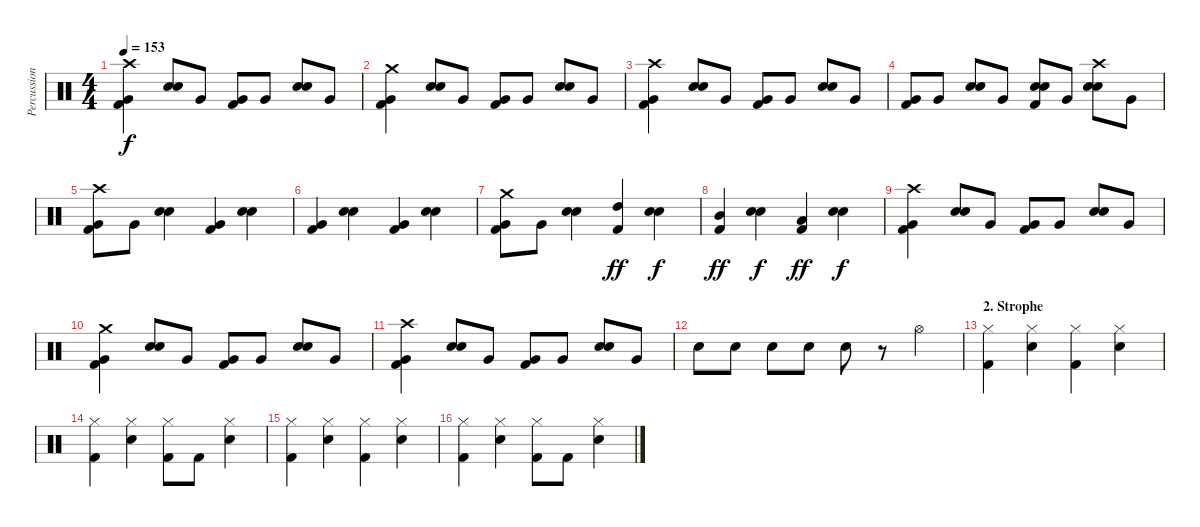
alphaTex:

\track ("Percussion" "Percussion") {instrument percussion}
\staff {score}
\articulation defaults
\ts (4 4)
\tempo 153
\clef neutral
\ks c
("Crash high (hit)" "Very Low Tom (hit)" "Kick (hit) 2").4{dy f} ("Electric Snare (hit)" "Snare (hit) 2").8 "Very Low Tom (hit)".8 ("Very Low Tom (hit)" "Kick (hit) 2").8 "Very Low Tom (hit)".8 ("Electric Snare (hit)" "Snare (hit) 2").8 "Very Low Tom (hit)".8 |
("Crash medium (hit)" "Very Low Tom (hit)" "Kick (hit) 2").4 ("Electric Snare (hit)" "Snare (hit) 2").8 "Very Low Tom (hit)".8 ("Very Low Tom (hit)" "Kick (hit) 2").8 "Very Low Tom (hit)".8 ("Electric Snare (hit)" "Snare (hit) 2").8 "Very Low Tom (hit)".8 |
("Crash high (hit)" "Very Low Tom (hit)" "Kick (hit) 2").4 ("Electric Snare (hit)" "Snare (hit) 2").8 "Very Low Tom (hit)".8 ("Very Low Tom (hit)" "Kick (hit) 2").8 "Very Low Tom (hit)".8 ("Electric Snare (hit)" "Snare (hit) 2").8 "Very Low Tom (hit)".8 |
("Very Low Tom (hit)" "Kick (hit) 2").8 "Very Low Tom (hit)".8 ("Electric Snare (hit)" "Snare (hit) 2").8 "Very Low Tom (hit)".8 ("Electric Snare (hit)" "Snare (hit) 2" "Kick (hit) 2").8 "Very Low Tom (hit)".8 ("Crash high (hit)" "Electric Snare (hit)" "Snare (hit) 2").8 "Very Low Tom (hit)".8 |
("Crash high (hit)" "Very Low Tom (hit)" "Kick (hit) 2").8 "Very Low Tom (hit)".8 ("Electric Snare (hit)" "Snare (hit) 2").4 ("Very Low Tom (hit)" "Kick (hit) 2").4 ("Electric Snare (hit)" "Snare (hit) 2").4 |
("Very Low Tom (hit)" "Kick (hit) 2").4 ("Electric Snare (hit)" "Snare (hit) 2").4 ("Very Low Tom (hit)" "Kick (hit) 2").4 ("Electric Snare (hit)" "Snare (hit) 2").4 |
("Crash medium (hit)" "Very Low Tom (hit)" "Kick (hit) 2").8 "Very Low Tom (hit)".8 ("Electric Snare (hit)" "Snare (hit) 2").4 ("High Tom (hit)" "Kick (hit) 2").4{dy ff} ("Electric Snare (hit)" "Snare (hit) 2").4{dy f} |
("Mid Tom (hit)" "Kick (hit) 2").4{dy ff} ("Electric Snare (hit)" "Snare (hit) 2").4{dy f} ("Low Tom (hit)" "Kick (hit) 2").4{dy ff} ("Electric Snare (hit)" "Snare (hit) 2").4{dy f} |
("Crash high (hit)" "Very Low Tom (hit)" "Kick (hit) 2").4 ("Electric Snare (hit)" "Snare (hit) 2").8 "Very Low Tom (hit)".8 ("Very Low Tom (hit)" "Kick (hit) 2").8 "Very Low Tom (hit)".8 ("Electric Snare (hit)" "Snare (hit) 2").8 "Very Low Tom (hit)".8 |
("Crash medium (hit)" "Very Low Tom (hit)" "Kick (hit) 2").4 ("Electric Snare (hit)" "Snare (hit) 2").8 "Very Low Tom (hit)".8 ("Very Low Tom (hit)" "Kick (hit) 2").8 "Very Low Tom (hit)".8 ("Electric Snare (hit)" "Snare (hit) 2").8 "Very Low Tom (hit)".8 |
("Crash high (hit)" "Very Low Tom (hit)" "Kick (hit) 2").4 ("Electric Snare (hit)" "Snare (hit) 2").8 "Very Low Tom (hit)".8 ("Very Low Tom (hit)" "Kick (hit) 2").8 "Very Low Tom (hit)".8 ("Electric Snare (hit)" "Snare (hit) 2").8 "Very Low Tom (hit)".8 |
"Electric Snare (hit)".8 "Electric Snare (hit)".8 "Electric Snare (hit)".8 "Snare (hit) 2".8 "Electric Snare (hit)".8 r.8 "Hi-Hat (open)".4 |
\section ("" "2. Strophe")
("Hi-Hat (closed)" "Kick (hit) 2").4 ("Hi-Hat (closed)" "Electric Snare (hit)").4 ("Hi-Hat (closed)" "Kick (hit) 2").4 ("Hi-Hat (closed)" "Electric Snare (hit)").4 |
("Hi-Hat (closed)" "Kick (hit) 2").4 ("Hi-Hat (closed)" "Electric Snare (hit)").4 ("Hi-Hat (closed)" "Kick (hit) 2").8 "Kick (hit) 2".8 ("Hi-Hat (closed)" "Electric Snare (hit)").4 |
("Hi-Hat (closed)" "Kick (hit) 2").4 ("Hi-Hat (closed)" "Electric Snare (hit)").4 ("Hi-Hat (closed)" "Kick (hit) 2").4 ("Hi-Hat (closed)" "Electric Snare (hit)").4 |
("Hi-Hat (closed)" "Kick (hit) 2").4 ("Hi-Hat (closed)" "Electric Snare (hit)").4 ("Hi-Hat (closed)" "Kick (hit) 2").8 "Kick (hit) 2".8 ("Hi-Hat (closed)" "Electric Snare (hit)").4
